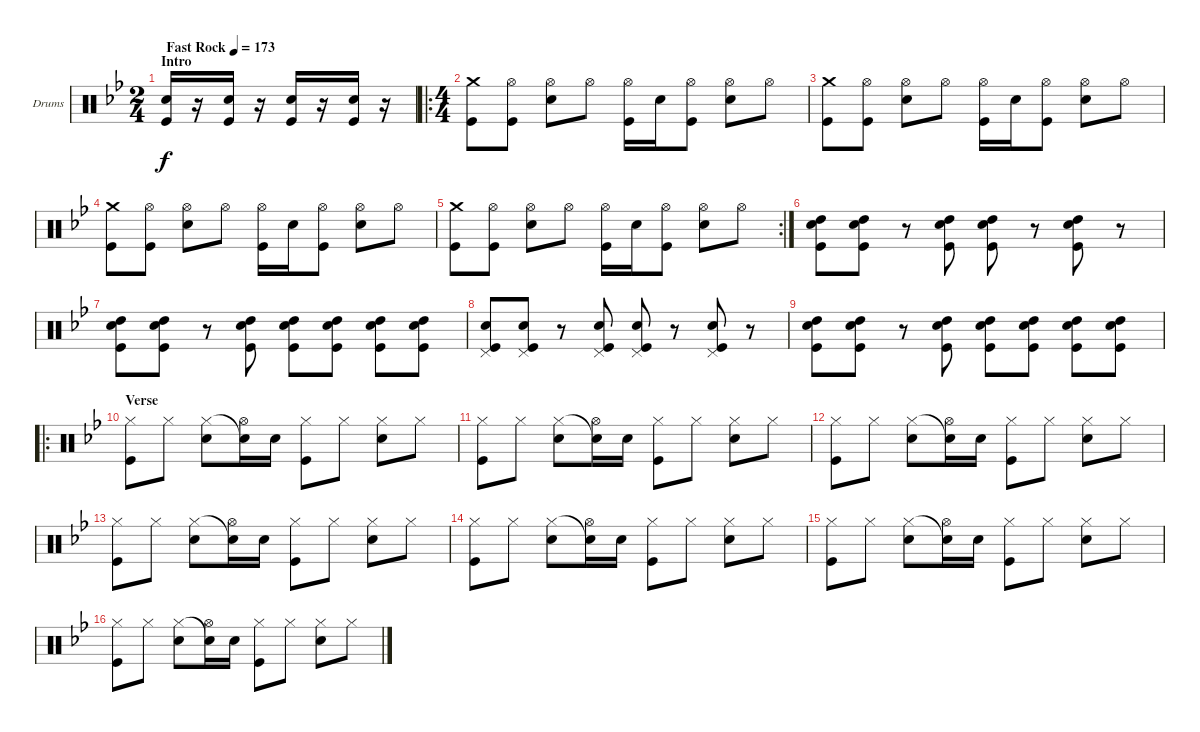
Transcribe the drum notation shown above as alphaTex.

\defaultSystemsLayout 4
\bracketExtendMode groupsimilarinstruments
\firstSystemTrackNameOrientation horizontal
\otherSystemsTrackNameOrientation horizontal
\track ("Drumkit" "Drums") {instrument percussion}
\staff {score}
\articulation defaults
\ts (2 4)
\section ("" "Intro")
\tempo (173 "Fast Rock")
\clef neutral
\ks bb
("Snare (hit) 2" "Kick (hit)").16{dy f} r.16 ("Snare (hit) 2" "Kick (hit)").16 r.16 ("Snare (hit) 2" "Kick (hit)").16 r.16 ("Snare (hit) 2" "Kick (hit)").16 r.16 |
\ro
\ts (4 4)
("Crash medium (hit)" "Kick (hit)").8 ("Hi-Hat (open)" "Kick (hit)").8 ("Snare (hit) 2" "Hi-Hat (open)").8 "Hi-Hat (open)".8 ("Hi-Hat (open)" "Kick (hit)").16 "Snare (hit) 2".16 ("Kick (hit)" "Hi-Hat (open)").8 ("Hi-Hat (open)" "Snare (hit) 2").8 "Hi-Hat (open)".8 |
("Crash medium (hit)" "Kick (hit)").8 ("Hi-Hat (open)" "Kick (hit)").8 ("Snare (hit) 2" "Hi-Hat (open)").8 "Hi-Hat (open)".8 ("Hi-Hat (open)" "Kick (hit)").16 "Snare (hit) 2".16 ("Kick (hit)" "Hi-Hat (open)").8 ("Hi-Hat (open)" "Snare (hit) 2").8 "Hi-Hat (open)".8 |
("Crash medium (hit)" "Kick (hit)").8 ("Hi-Hat (open)" "Kick (hit)").8 ("Snare (hit) 2" "Hi-Hat (open)").8 "Hi-Hat (open)".8 ("Hi-Hat (open)" "Kick (hit)").16 "Snare (hit) 2".16 ("Kick (hit)" "Hi-Hat (open)").8 ("Hi-Hat (open)" "Snare (hit) 2").8 "Hi-Hat (open)".8 |
\rc 2
("Crash medium (hit)" "Kick (hit)").8 ("Hi-Hat (open)" "Kick (hit)").8 ("Snare (hit) 2" "Hi-Hat (open)").8 "Hi-Hat (open)".8 ("Hi-Hat (open)" "Kick (hit)").16 "Snare (hit) 2".16 ("Kick (hit)" "Hi-Hat (open)").8 ("Hi-Hat (open)" "Snare (hit) 2").8 "Hi-Hat (open)".8 |
("High Tom (hit)" "Snare (hit) 2" "Kick (hit)").8 ("High Tom (hit)" "Snare (hit) 2" "Kick (hit)").8 r.8 ("High Tom (hit)" "Snare (hit) 2" "Kick (hit)").8 ("High Tom (hit)" "Snare (hit) 2" "Kick (hit)").8 r.8 ("High Tom (hit)" "Snare (hit) 2" "Kick (hit)").8 r.8 |
("High Tom (hit)" "Snare (hit) 2" "Kick (hit)").8 ("High Tom (hit)" "Snare (hit) 2" "Kick (hit)").8 r.8 ("High Tom (hit)" "Snare (hit) 2" "Kick (hit)").8 ("High Tom (hit)" "Snare (hit) 2" "Kick (hit)").8 ("High Tom (hit)" "Snare (hit) 2" "Kick (hit)").8 ("High Tom (hit)" "Snare (hit) 2" "Kick (hit)").8 ("High Tom (hit)" "Snare (hit) 2" "Kick (hit)").8 |
("Snare (hit) 2" "Kick (hit)" "Pedal Hi-Hat (hit)").8 ("Snare (hit) 2" "Kick (hit)" "Pedal Hi-Hat (hit)").8 r.8 ("Snare (hit) 2" "Kick (hit)" "Pedal Hi-Hat (hit)").8 ("Snare (hit) 2" "Kick (hit)" "Pedal Hi-Hat (hit)").8 r.8 ("Snare (hit) 2" "Kick (hit)" "Pedal Hi-Hat (hit)").8 r.8 |
("High Tom (hit)" "Snare (hit) 2" "Kick (hit)").8 ("High Tom (hit)" "Snare (hit) 2" "Kick (hit)").8 r.8 ("High Tom (hit)" "Snare (hit) 2" "Kick (hit)").8 ("High Tom (hit)" "Snare (hit) 2" "Kick (hit)").8 ("High Tom (hit)" "Snare (hit) 2" "Kick (hit)").8 ("High Tom (hit)" "Snare (hit) 2" "Kick (hit)").8 ("High Tom (hit)" "Snare (hit) 2" "Kick (hit)").8 |
\ro
\section ("" "Verse")
("Hi-Hat (closed)" "Kick (hit)").8 "Hi-Hat (closed)".8 ("Hi-Hat (closed)" "Snare (hit) 2").8 ("Snare (hit) 2"{t} "Hi-Hat (open)").16 "Snare (hit) 2".16 ("Hi-Hat (closed)" "Kick (hit)").8 "Hi-Hat (closed)".8 ("Hi-Hat (closed)" "Snare (hit) 2").8 "Hi-Hat (closed)".8 |
("Hi-Hat (closed)" "Kick (hit)").8 "Hi-Hat (closed)".8 ("Hi-Hat (closed)" "Snare (hit) 2").8 ("Snare (hit) 2"{t} "Hi-Hat (open)").16 "Snare (hit) 2".16 ("Hi-Hat (closed)" "Kick (hit)").8 "Hi-Hat (closed)".8 ("Hi-Hat (closed)" "Snare (hit) 2").8 "Hi-Hat (closed)".8 |
("Hi-Hat (closed)" "Kick (hit)").8 "Hi-Hat (closed)".8 ("Hi-Hat (closed)" "Snare (hit) 2").8 ("Snare (hit) 2"{t} "Hi-Hat (open)").16 "Snare (hit) 2".16 ("Hi-Hat (closed)" "Kick (hit)").8 "Hi-Hat (closed)".8 ("Hi-Hat (closed)" "Snare (hit) 2").8 "Hi-Hat (closed)".8 |
("Hi-Hat (closed)" "Kick (hit)").8 "Hi-Hat (closed)".8 ("Hi-Hat (closed)" "Snare (hit) 2").8 ("Snare (hit) 2"{t} "Hi-Hat (open)").16 "Snare (hit) 2".16 ("Hi-Hat (closed)" "Kick (hit)").8 "Hi-Hat (closed)".8 ("Hi-Hat (closed)" "Snare (hit) 2").8 "Hi-Hat (closed)".8 |
("Hi-Hat (closed)" "Kick (hit)").8 "Hi-Hat (closed)".8 ("Hi-Hat (closed)" "Snare (hit) 2").8 ("Snare (hit) 2"{t} "Hi-Hat (open)").16 "Snare (hit) 2".16 ("Hi-Hat (closed)" "Kick (hit)").8 "Hi-Hat (closed)".8 ("Hi-Hat (closed)" "Snare (hit) 2").8 "Hi-Hat (closed)".8 |
("Hi-Hat (closed)" "Kick (hit)").8 "Hi-Hat (closed)".8 ("Hi-Hat (closed)" "Snare (hit) 2").8 ("Snare (hit) 2"{t} "Hi-Hat (open)").16 "Snare (hit) 2".16 ("Hi-Hat (closed)" "Kick (hit)").8 "Hi-Hat (closed)".8 ("Hi-Hat (closed)" "Snare (hit) 2").8 "Hi-Hat (closed)".8 |
("Hi-Hat (closed)" "Kick (hit)").8 "Hi-Hat (closed)".8 ("Hi-Hat (closed)" "Snare (hit) 2").8 ("Snare (hit) 2"{t} "Hi-Hat (open)").16 "Snare (hit) 2".16 ("Hi-Hat (closed)" "Kick (hit)").8 "Hi-Hat (closed)".8 ("Hi-Hat (closed)" "Snare (hit) 2").8 "Hi-Hat (closed)".8
